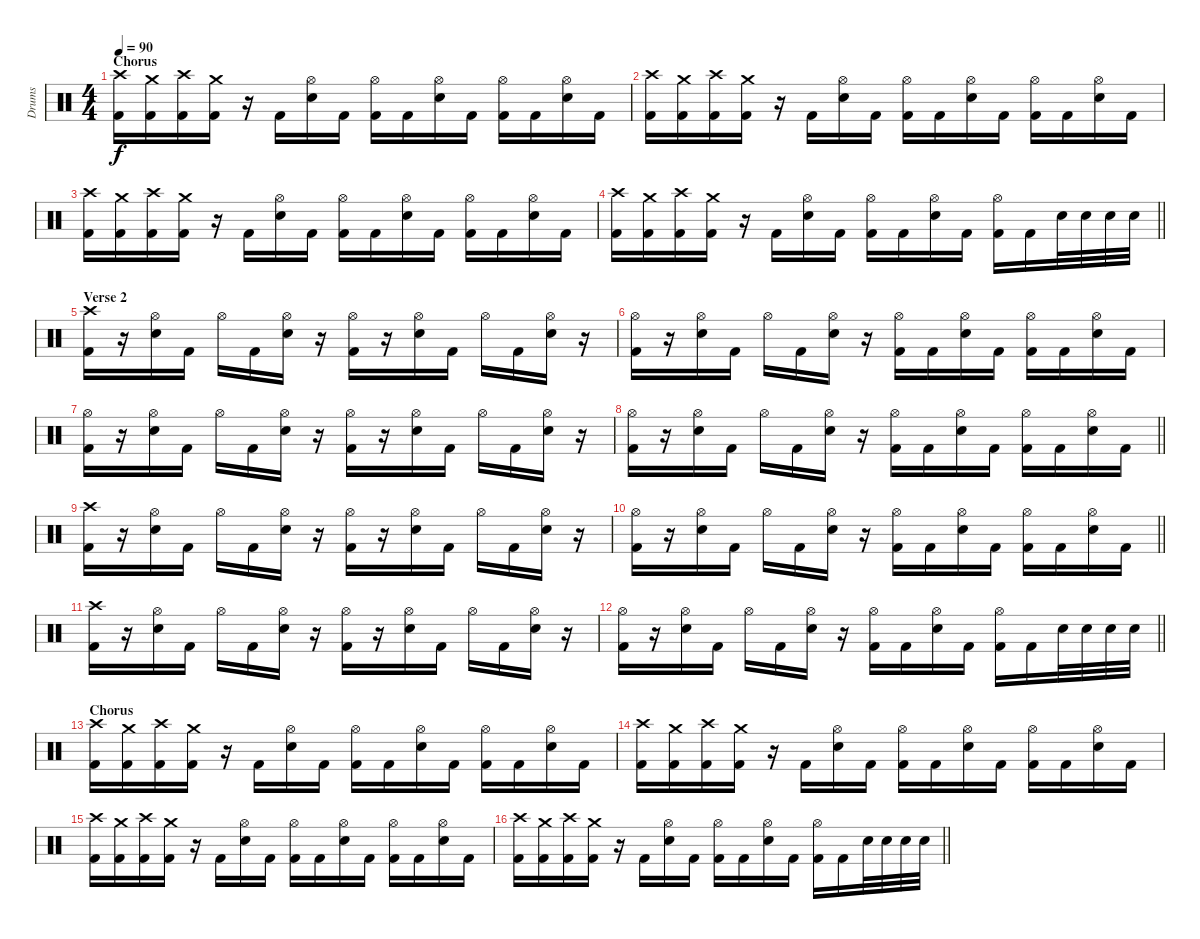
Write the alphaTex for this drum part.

\track ("Drums" "Drums") {instrument percussion}
\staff {score}
\articulation defaults
\ts (4 4)
\section ("" "Chorus")
\tempo 90
\clef neutral
\ks c
("Crash high (hit)" "Kick (hit) 2").16{dy f} ("Crash medium (hit)" "Kick (hit) 2").16 ("Crash high (hit)" "Kick (hit) 2").16 ("Crash medium (hit)" "Kick (hit) 2").16 r.16 "Kick (hit) 2".16 ("Hi-Hat (open)" "Snare (hit) 2").16 "Kick (hit) 2".16 ("Hi-Hat (open)" "Kick (hit) 2").16 "Kick (hit) 2".16 ("Hi-Hat (open)" "Snare (hit) 2").16 "Kick (hit) 2".16 ("Hi-Hat (open)" "Kick (hit) 2").16 "Kick (hit) 2".16 ("Hi-Hat (open)" "Snare (hit) 2").16 "Kick (hit) 2".16 |
("Crash high (hit)" "Kick (hit) 2").16 ("Crash medium (hit)" "Kick (hit) 2").16 ("Crash high (hit)" "Kick (hit) 2").16 ("Crash medium (hit)" "Kick (hit) 2").16 r.16 "Kick (hit) 2".16 ("Hi-Hat (open)" "Snare (hit) 2").16 "Kick (hit) 2".16 ("Hi-Hat (open)" "Kick (hit) 2").16 "Kick (hit) 2".16 ("Hi-Hat (open)" "Snare (hit) 2").16 "Kick (hit) 2".16 ("Hi-Hat (open)" "Kick (hit) 2").16 "Kick (hit) 2".16 ("Hi-Hat (open)" "Snare (hit) 2").16 "Kick (hit) 2".16 |
("Crash high (hit)" "Kick (hit) 2").16 ("Crash medium (hit)" "Kick (hit) 2").16 ("Crash high (hit)" "Kick (hit) 2").16 ("Crash medium (hit)" "Kick (hit) 2").16 r.16 "Kick (hit) 2".16 ("Hi-Hat (open)" "Snare (hit) 2").16 "Kick (hit) 2".16 ("Hi-Hat (open)" "Kick (hit) 2").16 "Kick (hit) 2".16 ("Hi-Hat (open)" "Snare (hit) 2").16 "Kick (hit) 2".16 ("Hi-Hat (open)" "Kick (hit) 2").16 "Kick (hit) 2".16 ("Hi-Hat (open)" "Snare (hit) 2").16 "Kick (hit) 2".16 |
\barLineRight lightlight
("Crash high (hit)" "Kick (hit) 2").16 ("Crash medium (hit)" "Kick (hit) 2").16 ("Crash high (hit)" "Kick (hit) 2").16 ("Crash medium (hit)" "Kick (hit) 2").16 r.16 "Kick (hit) 2".16 ("Hi-Hat (open)" "Snare (hit) 2").16 "Kick (hit) 2".16 ("Hi-Hat (open)" "Kick (hit) 2").16 "Kick (hit) 2".16 ("Hi-Hat (open)" "Snare (hit) 2").16 "Kick (hit) 2".16 ("Hi-Hat (open)" "Kick (hit) 2").16 "Kick (hit) 2".16 "Snare (hit) 2".32 "Snare (hit) 2".32 "Snare (hit) 2".32 "Snare (hit) 2".32 |
\section ("" "Verse 2")
("Crash high (hit)" "Kick (hit) 2").16 r.16 ("Hi-Hat (open)" "Snare (hit) 2").16 "Kick (hit) 2".16 "Hi-Hat (open)".16 "Kick (hit) 2".16 ("Hi-Hat (open)" "Snare (hit) 2").16 r.16 ("Hi-Hat (open)" "Kick (hit) 2").16 r.16 ("Hi-Hat (open)" "Snare (hit) 2").16 "Kick (hit) 2".16 "Hi-Hat (open)".16 "Kick (hit) 2".16 ("Hi-Hat (open)" "Snare (hit) 2").16 r.16 |
("Hi-Hat (open)" "Kick (hit) 2").16 r.16 ("Hi-Hat (open)" "Snare (hit) 2").16 "Kick (hit) 2".16 "Hi-Hat (open)".16 "Kick (hit) 2".16 ("Hi-Hat (open)" "Snare (hit) 2").16 r.16 ("Hi-Hat (open)" "Kick (hit) 2").16 "Kick (hit) 2".16 ("Hi-Hat (open)" "Snare (hit) 2").16 "Kick (hit) 2".16 ("Hi-Hat (open)" "Kick (hit) 2").16 "Kick (hit) 2".16 ("Hi-Hat (open)" "Snare (hit) 2").16 "Kick (hit) 2".16 |
("Hi-Hat (open)" "Kick (hit) 2").16 r.16 ("Hi-Hat (open)" "Snare (hit) 2").16 "Kick (hit) 2".16 "Hi-Hat (open)".16 "Kick (hit) 2".16 ("Hi-Hat (open)" "Snare (hit) 2").16 r.16 ("Hi-Hat (open)" "Kick (hit) 2").16 r.16 ("Hi-Hat (open)" "Snare (hit) 2").16 "Kick (hit) 2".16 "Hi-Hat (open)".16 "Kick (hit) 2".16 ("Hi-Hat (open)" "Snare (hit) 2").16 r.16 |
\barLineRight lightlight
("Hi-Hat (open)" "Kick (hit) 2").16 r.16 ("Hi-Hat (open)" "Snare (hit) 2").16 "Kick (hit) 2".16 "Hi-Hat (open)".16 "Kick (hit) 2".16 ("Hi-Hat (open)" "Snare (hit) 2").16 r.16 ("Hi-Hat (open)" "Kick (hit) 2").16 "Kick (hit) 2".16 ("Hi-Hat (open)" "Snare (hit) 2").16 "Kick (hit) 2".16 ("Hi-Hat (open)" "Kick (hit) 2").16 "Kick (hit) 2".16 ("Hi-Hat (open)" "Snare (hit) 2").16 "Kick (hit) 2".16 |
("Crash high (hit)" "Kick (hit) 2").16 r.16 ("Hi-Hat (open)" "Snare (hit) 2").16 "Kick (hit) 2".16 "Hi-Hat (open)".16 "Kick (hit) 2".16 ("Hi-Hat (open)" "Snare (hit) 2").16 r.16 ("Hi-Hat (open)" "Kick (hit) 2").16 r.16 ("Hi-Hat (open)" "Snare (hit) 2").16 "Kick (hit) 2".16 "Hi-Hat (open)".16 "Kick (hit) 2".16 ("Hi-Hat (open)" "Snare (hit) 2").16 r.16 |
\barLineRight lightlight
("Hi-Hat (open)" "Kick (hit) 2").16 r.16 ("Hi-Hat (open)" "Snare (hit) 2").16 "Kick (hit) 2".16 "Hi-Hat (open)".16 "Kick (hit) 2".16 ("Hi-Hat (open)" "Snare (hit) 2").16 r.16 ("Hi-Hat (open)" "Kick (hit) 2").16 "Kick (hit) 2".16 ("Hi-Hat (open)" "Snare (hit) 2").16 "Kick (hit) 2".16 ("Hi-Hat (open)" "Kick (hit) 2").16 "Kick (hit) 2".16 ("Hi-Hat (open)" "Snare (hit) 2").16 "Kick (hit) 2".16 |
("Crash high (hit)" "Kick (hit) 2").16 r.16 ("Hi-Hat (open)" "Snare (hit) 2").16 "Kick (hit) 2".16 "Hi-Hat (open)".16 "Kick (hit) 2".16 ("Hi-Hat (open)" "Snare (hit) 2").16 r.16 ("Hi-Hat (open)" "Kick (hit) 2").16 r.16 ("Hi-Hat (open)" "Snare (hit) 2").16 "Kick (hit) 2".16 "Hi-Hat (open)".16 "Kick (hit) 2".16 ("Hi-Hat (open)" "Snare (hit) 2").16 r.16 |
\barLineRight lightlight
("Hi-Hat (open)" "Kick (hit) 2").16 r.16 ("Hi-Hat (open)" "Snare (hit) 2").16 "Kick (hit) 2".16 "Hi-Hat (open)".16 "Kick (hit) 2".16 ("Hi-Hat (open)" "Snare (hit) 2").16 r.16 ("Hi-Hat (open)" "Kick (hit) 2").16 "Kick (hit) 2".16 ("Hi-Hat (open)" "Snare (hit) 2").16 "Kick (hit) 2".16 ("Hi-Hat (open)" "Kick (hit) 2").16 "Kick (hit) 2".16 "Snare (hit) 2".32 "Snare (hit) 2".32 "Snare (hit) 2".32 "Snare (hit) 2".32 |
\section ("" "Chorus")
("Crash high (hit)" "Kick (hit) 2").16 ("Crash medium (hit)" "Kick (hit) 2").16 ("Crash high (hit)" "Kick (hit) 2").16 ("Crash medium (hit)" "Kick (hit) 2").16 r.16 "Kick (hit) 2".16 ("Hi-Hat (open)" "Snare (hit) 2").16 "Kick (hit) 2".16 ("Hi-Hat (open)" "Kick (hit) 2").16 "Kick (hit) 2".16 ("Hi-Hat (open)" "Snare (hit) 2").16 "Kick (hit) 2".16 ("Hi-Hat (open)" "Kick (hit) 2").16 "Kick (hit) 2".16 ("Hi-Hat (open)" "Snare (hit) 2").16 "Kick (hit) 2".16 |
("Crash high (hit)" "Kick (hit) 2").16 ("Crash medium (hit)" "Kick (hit) 2").16 ("Crash high (hit)" "Kick (hit) 2").16 ("Crash medium (hit)" "Kick (hit) 2").16 r.16 "Kick (hit) 2".16 ("Hi-Hat (open)" "Snare (hit) 2").16 "Kick (hit) 2".16 ("Hi-Hat (open)" "Kick (hit) 2").16 "Kick (hit) 2".16 ("Hi-Hat (open)" "Snare (hit) 2").16 "Kick (hit) 2".16 ("Hi-Hat (open)" "Kick (hit) 2").16 "Kick (hit) 2".16 ("Hi-Hat (open)" "Snare (hit) 2").16 "Kick (hit) 2".16 |
("Crash high (hit)" "Kick (hit) 2").16 ("Crash medium (hit)" "Kick (hit) 2").16 ("Crash high (hit)" "Kick (hit) 2").16 ("Crash medium (hit)" "Kick (hit) 2").16 r.16 "Kick (hit) 2".16 ("Hi-Hat (open)" "Snare (hit) 2").16 "Kick (hit) 2".16 ("Hi-Hat (open)" "Kick (hit) 2").16 "Kick (hit) 2".16 ("Hi-Hat (open)" "Snare (hit) 2").16 "Kick (hit) 2".16 ("Hi-Hat (open)" "Kick (hit) 2").16 "Kick (hit) 2".16 ("Hi-Hat (open)" "Snare (hit) 2").16 "Kick (hit) 2".16 |
\barLineRight lightlight
("Crash high (hit)" "Kick (hit) 2").16 ("Crash medium (hit)" "Kick (hit) 2").16 ("Crash high (hit)" "Kick (hit) 2").16 ("Crash medium (hit)" "Kick (hit) 2").16 r.16 "Kick (hit) 2".16 ("Hi-Hat (open)" "Snare (hit) 2").16 "Kick (hit) 2".16 ("Hi-Hat (open)" "Kick (hit) 2").16 "Kick (hit) 2".16 ("Hi-Hat (open)" "Snare (hit) 2").16 "Kick (hit) 2".16 ("Hi-Hat (open)" "Kick (hit) 2").16 "Kick (hit) 2".16 "Snare (hit) 2".32 "Snare (hit) 2".32 "Snare (hit) 2".32 "Snare (hit) 2".32
